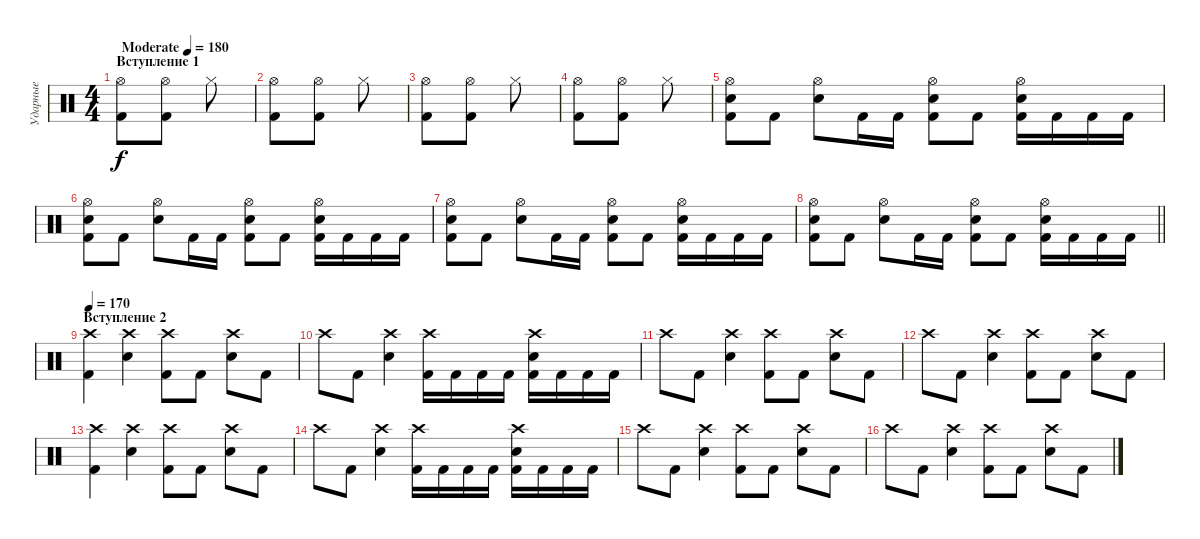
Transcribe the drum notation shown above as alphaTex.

\track ("Ударные" "Ударные") {instrument percussion}
\staff {score}
\articulation defaults
\ts (4 4)
\section ("" "Вступление 1")
\tempo (180 "Moderate")
\clef neutral
\ks c
("Hi-Hat (open)" "Kick (hit) 2").8{dy f} ("Hi-Hat (open)" "Kick (hit) 2").8 "Hi-Hat (closed)".8 |
("Hi-Hat (open)" "Kick (hit) 2").8 ("Hi-Hat (open)" "Kick (hit) 2").8 "Hi-Hat (closed)".8 |
("Hi-Hat (open)" "Kick (hit) 2").8 ("Hi-Hat (open)" "Kick (hit) 2").8 "Hi-Hat (closed)".8 |
("Hi-Hat (open)" "Kick (hit) 2").8 ("Hi-Hat (open)" "Kick (hit) 2").8 "Hi-Hat (closed)".8 |
("Hi-Hat (open)" "Electric Snare (hit)" "Kick (hit) 2").8 "Kick (hit) 2".8 ("Hi-Hat (open)" "Electric Snare (hit)").8 "Kick (hit) 2".16 "Kick (hit) 2".16 ("Hi-Hat (open)" "Electric Snare (hit)" "Kick (hit) 2").8 "Kick (hit) 2".8 ("Hi-Hat (open)" "Electric Snare (hit)" "Kick (hit) 2").16 "Kick (hit) 2".16 "Kick (hit) 2".16 "Kick (hit) 2".16 |
("Hi-Hat (open)" "Electric Snare (hit)" "Kick (hit) 2").8 "Kick (hit) 2".8 ("Hi-Hat (open)" "Electric Snare (hit)").8 "Kick (hit) 2".16 "Kick (hit) 2".16 ("Hi-Hat (open)" "Electric Snare (hit)" "Kick (hit) 2").8 "Kick (hit) 2".8 ("Hi-Hat (open)" "Electric Snare (hit)" "Kick (hit) 2").16 "Kick (hit) 2".16 "Kick (hit) 2".16 "Kick (hit) 2".16 |
("Hi-Hat (open)" "Electric Snare (hit)" "Kick (hit) 2").8 "Kick (hit) 2".8 ("Hi-Hat (open)" "Electric Snare (hit)").8 "Kick (hit) 2".16 "Kick (hit) 2".16 ("Hi-Hat (open)" "Electric Snare (hit)" "Kick (hit) 2").8 "Kick (hit) 2".8 ("Hi-Hat (open)" "Electric Snare (hit)" "Kick (hit) 2").16 "Kick (hit) 2".16 "Kick (hit) 2".16 "Kick (hit) 2".16 |
\barLineRight lightlight
("Hi-Hat (open)" "Electric Snare (hit)" "Kick (hit) 2").8 "Kick (hit) 2".8 ("Hi-Hat (open)" "Electric Snare (hit)").8 "Kick (hit) 2".16 "Kick (hit) 2".16 ("Hi-Hat (open)" "Electric Snare (hit)" "Kick (hit) 2").8 "Kick (hit) 2".8 ("Hi-Hat (open)" "Electric Snare (hit)" "Kick (hit) 2").16 "Kick (hit) 2".16 "Kick (hit) 2".16 "Kick (hit) 2".16 |
\section ("" "Вступление 2")
\tempo 170
("Crash high (hit)" "Kick (hit) 2").4 ("Crash high (hit)" "Electric Snare (hit)").4 ("Crash high (hit)" "Kick (hit) 2").8 "Kick (hit) 2".8 ("Crash high (hit)" "Electric Snare (hit)").8 "Kick (hit) 2".8 |
"Crash high (hit)".8 "Kick (hit) 2".8 ("Crash high (hit)" "Electric Snare (hit)").4 ("Crash high (hit)" "Kick (hit) 2").16 "Kick (hit) 2".16 "Kick (hit) 2".16 "Kick (hit) 2".16 ("Crash high (hit)" "Electric Snare (hit)" "Kick (hit) 2").16 "Kick (hit) 2".16 "Kick (hit) 2".16 "Kick (hit) 2".16 |
"Crash high (hit)".8 "Kick (hit) 2".8 ("Crash high (hit)" "Electric Snare (hit)").4 ("Crash high (hit)" "Kick (hit) 2").8 "Kick (hit) 2".8 ("Crash high (hit)" "Electric Snare (hit)").8 "Kick (hit) 2".8 |
"Crash high (hit)".8 "Kick (hit) 2".8 ("Crash high (hit)" "Electric Snare (hit)").4 ("Crash high (hit)" "Kick (hit) 2").8 "Kick (hit) 2".8 ("Crash high (hit)" "Electric Snare (hit)").8 "Kick (hit) 2".8 |
("Crash high (hit)" "Kick (hit) 2").4 ("Crash high (hit)" "Electric Snare (hit)").4 ("Crash high (hit)" "Kick (hit) 2").8 "Kick (hit) 2".8 ("Crash high (hit)" "Electric Snare (hit)").8 "Kick (hit) 2".8 |
"Crash high (hit)".8 "Kick (hit) 2".8 ("Crash high (hit)" "Electric Snare (hit)").4 ("Crash high (hit)" "Kick (hit) 2").16 "Kick (hit) 2".16 "Kick (hit) 2".16 "Kick (hit) 2".16 ("Crash high (hit)" "Electric Snare (hit)" "Kick (hit) 2").16 "Kick (hit) 2".16 "Kick (hit) 2".16 "Kick (hit) 2".16 |
"Crash high (hit)".8 "Kick (hit) 2".8 ("Crash high (hit)" "Electric Snare (hit)").4 ("Crash high (hit)" "Kick (hit) 2").8 "Kick (hit) 2".8 ("Crash high (hit)" "Electric Snare (hit)").8 "Kick (hit) 2".8 |
"Crash high (hit)".8 "Kick (hit) 2".8 ("Crash high (hit)" "Electric Snare (hit)").4 ("Crash high (hit)" "Kick (hit) 2").8 "Kick (hit) 2".8 ("Crash high (hit)" "Electric Snare (hit)").8 "Kick (hit) 2".8
